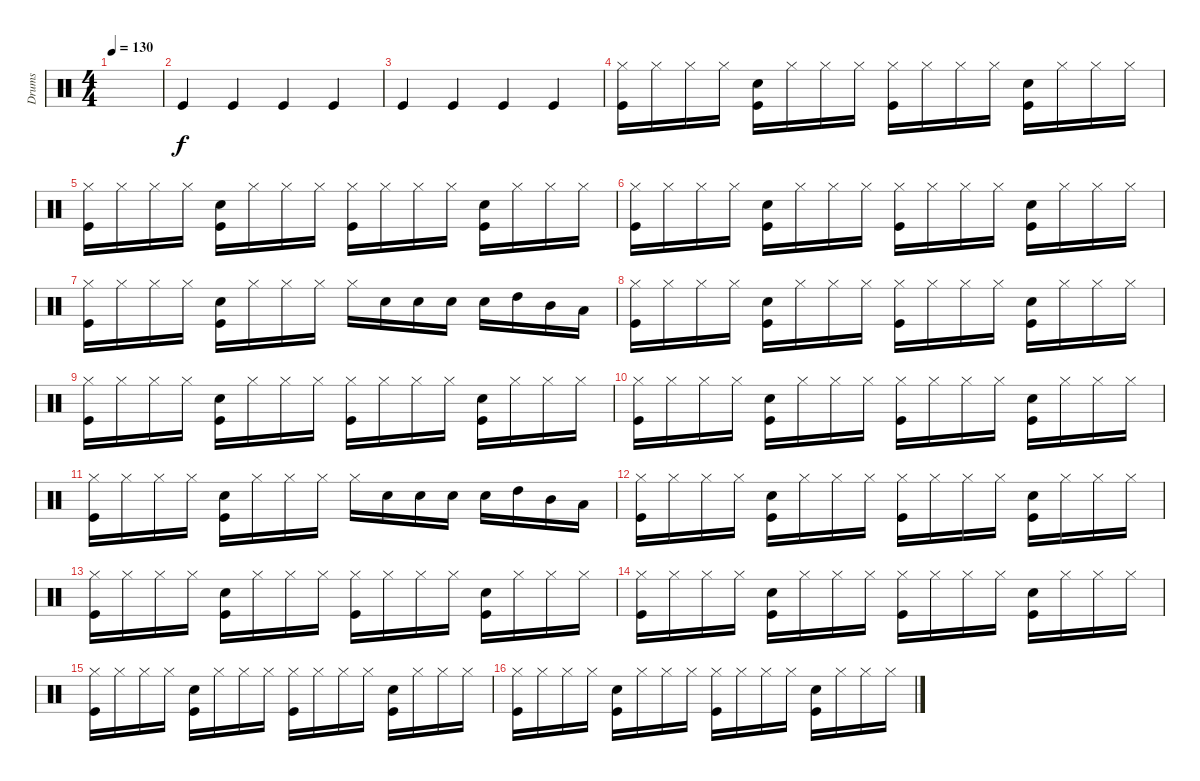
\track ("Drums" "Drums") {instrument percussion}
\staff {score}
\articulation defaults
\ts (4 4)
\tempo 130
\clef neutral
\ks c
|
"Kick (hit)".4 "Kick (hit)".4 "Kick (hit)".4 "Kick (hit)".4 |
"Kick (hit)".4 "Kick (hit)".4 "Kick (hit)".4 "Kick (hit)".4 |
("Hi-Hat (closed)" "Kick (hit)").16 "Hi-Hat (closed)".16 "Hi-Hat (closed)".16 "Hi-Hat (closed)".16 ("Snare (hit) 2" "Kick (hit)").16 "Hi-Hat (closed)".16 "Hi-Hat (closed)".16 "Hi-Hat (closed)".16 ("Hi-Hat (closed)" "Kick (hit)").16 "Hi-Hat (closed)".16 "Hi-Hat (closed)".16 "Hi-Hat (closed)".16 ("Snare (hit) 2" "Kick (hit)").16 "Hi-Hat (closed)".16 "Hi-Hat (closed)".16 "Hi-Hat (closed)".16 |
("Hi-Hat (closed)" "Kick (hit)").16 "Hi-Hat (closed)".16 "Hi-Hat (closed)".16 "Hi-Hat (closed)".16 ("Snare (hit) 2" "Kick (hit)").16 "Hi-Hat (closed)".16 "Hi-Hat (closed)".16 "Hi-Hat (closed)".16 ("Hi-Hat (closed)" "Kick (hit)").16 "Hi-Hat (closed)".16 "Hi-Hat (closed)".16 "Hi-Hat (closed)".16 ("Snare (hit) 2" "Kick (hit)").16 "Hi-Hat (closed)".16 "Hi-Hat (closed)".16 "Hi-Hat (closed)".16 |
("Hi-Hat (closed)" "Kick (hit)").16 "Hi-Hat (closed)".16 "Hi-Hat (closed)".16 "Hi-Hat (closed)".16 ("Snare (hit) 2" "Kick (hit)").16 "Hi-Hat (closed)".16 "Hi-Hat (closed)".16 "Hi-Hat (closed)".16 ("Hi-Hat (closed)" "Kick (hit)").16 "Hi-Hat (closed)".16 "Hi-Hat (closed)".16 "Hi-Hat (closed)".16 ("Snare (hit) 2" "Kick (hit)").16 "Hi-Hat (closed)".16 "Hi-Hat (closed)".16 "Hi-Hat (closed)".16 |
("Hi-Hat (closed)" "Kick (hit)").16 "Hi-Hat (closed)".16 "Hi-Hat (closed)".16 "Hi-Hat (closed)".16 ("Snare (hit) 2" "Kick (hit)").16 "Hi-Hat (closed)".16 "Hi-Hat (closed)".16 "Hi-Hat (closed)".16 "Hi-Hat (closed)".16 "Snare (hit) 2".16 "Snare (hit) 2".16 "Snare (hit) 2".16 "Snare (hit) 2".16 "High Tom (hit)".16 "Mid Tom (hit)".16 "Low Tom (hit)".16 |
("Hi-Hat (closed)" "Kick (hit)").16 "Hi-Hat (closed)".16 "Hi-Hat (closed)".16 "Hi-Hat (closed)".16 ("Snare (hit) 2" "Kick (hit)").16 "Hi-Hat (closed)".16 "Hi-Hat (closed)".16 "Hi-Hat (closed)".16 ("Hi-Hat (closed)" "Kick (hit)").16 "Hi-Hat (closed)".16 "Hi-Hat (closed)".16 "Hi-Hat (closed)".16 ("Snare (hit) 2" "Kick (hit)").16 "Hi-Hat (closed)".16 "Hi-Hat (closed)".16 "Hi-Hat (closed)".16 |
("Hi-Hat (closed)" "Kick (hit)").16 "Hi-Hat (closed)".16 "Hi-Hat (closed)".16 "Hi-Hat (closed)".16 ("Snare (hit) 2" "Kick (hit)").16 "Hi-Hat (closed)".16 "Hi-Hat (closed)".16 "Hi-Hat (closed)".16 ("Hi-Hat (closed)" "Kick (hit)").16 "Hi-Hat (closed)".16 "Hi-Hat (closed)".16 "Hi-Hat (closed)".16 ("Snare (hit) 2" "Kick (hit)").16 "Hi-Hat (closed)".16 "Hi-Hat (closed)".16 "Hi-Hat (closed)".16 |
("Hi-Hat (closed)" "Kick (hit)").16 "Hi-Hat (closed)".16 "Hi-Hat (closed)".16 "Hi-Hat (closed)".16 ("Snare (hit) 2" "Kick (hit)").16 "Hi-Hat (closed)".16 "Hi-Hat (closed)".16 "Hi-Hat (closed)".16 ("Hi-Hat (closed)" "Kick (hit)").16 "Hi-Hat (closed)".16 "Hi-Hat (closed)".16 "Hi-Hat (closed)".16 ("Snare (hit) 2" "Kick (hit)").16 "Hi-Hat (closed)".16 "Hi-Hat (closed)".16 "Hi-Hat (closed)".16 |
("Hi-Hat (closed)" "Kick (hit)").16 "Hi-Hat (closed)".16 "Hi-Hat (closed)".16 "Hi-Hat (closed)".16 ("Snare (hit) 2" "Kick (hit)").16 "Hi-Hat (closed)".16 "Hi-Hat (closed)".16 "Hi-Hat (closed)".16 "Hi-Hat (closed)".16 "Snare (hit) 2".16 "Snare (hit) 2".16 "Snare (hit) 2".16 "Snare (hit) 2".16 "High Tom (hit)".16 "Mid Tom (hit)".16 "Low Tom (hit)".16 |
("Hi-Hat (closed)" "Kick (hit)").16 "Hi-Hat (closed)".16 "Hi-Hat (closed)".16 "Hi-Hat (closed)".16 ("Snare (hit) 2" "Kick (hit)").16 "Hi-Hat (closed)".16 "Hi-Hat (closed)".16 "Hi-Hat (closed)".16 ("Hi-Hat (closed)" "Kick (hit)").16 "Hi-Hat (closed)".16 "Hi-Hat (closed)".16 "Hi-Hat (closed)".16 ("Snare (hit) 2" "Kick (hit)").16 "Hi-Hat (closed)".16 "Hi-Hat (closed)".16 "Hi-Hat (closed)".16 |
("Hi-Hat (closed)" "Kick (hit)").16 "Hi-Hat (closed)".16 "Hi-Hat (closed)".16 "Hi-Hat (closed)".16 ("Snare (hit) 2" "Kick (hit)").16 "Hi-Hat (closed)".16 "Hi-Hat (closed)".16 "Hi-Hat (closed)".16 ("Hi-Hat (closed)" "Kick (hit)").16 "Hi-Hat (closed)".16 "Hi-Hat (closed)".16 "Hi-Hat (closed)".16 ("Snare (hit) 2" "Kick (hit)").16 "Hi-Hat (closed)".16 "Hi-Hat (closed)".16 "Hi-Hat (closed)".16 |
("Hi-Hat (closed)" "Kick (hit)").16 "Hi-Hat (closed)".16 "Hi-Hat (closed)".16 "Hi-Hat (closed)".16 ("Snare (hit) 2" "Kick (hit)").16 "Hi-Hat (closed)".16 "Hi-Hat (closed)".16 "Hi-Hat (closed)".16 ("Hi-Hat (closed)" "Kick (hit)").16 "Hi-Hat (closed)".16 "Hi-Hat (closed)".16 "Hi-Hat (closed)".16 ("Snare (hit) 2" "Kick (hit)").16 "Hi-Hat (closed)".16 "Hi-Hat (closed)".16 "Hi-Hat (closed)".16 |
("Hi-Hat (closed)" "Kick (hit)").16 "Hi-Hat (closed)".16 "Hi-Hat (closed)".16 "Hi-Hat (closed)".16 ("Snare (hit) 2" "Kick (hit)").16 "Hi-Hat (closed)".16 "Hi-Hat (closed)".16 "Hi-Hat (closed)".16 ("Hi-Hat (closed)" "Kick (hit)").16 "Hi-Hat (closed)".16 "Hi-Hat (closed)".16 "Hi-Hat (closed)".16 ("Snare (hit) 2" "Kick (hit)").16 "Hi-Hat (closed)".16 "Hi-Hat (closed)".16 "Hi-Hat (closed)".16 |
("Hi-Hat (closed)" "Kick (hit)").16 "Hi-Hat (closed)".16 "Hi-Hat (closed)".16 "Hi-Hat (closed)".16 ("Snare (hit) 2" "Kick (hit)").16 "Hi-Hat (closed)".16 "Hi-Hat (closed)".16 "Hi-Hat (closed)".16 ("Hi-Hat (closed)" "Kick (hit)").16 "Hi-Hat (closed)".16 "Hi-Hat (closed)".16 "Hi-Hat (closed)".16 ("Snare (hit) 2" "Kick (hit)").16 "Hi-Hat (closed)".16 "Hi-Hat (closed)".16 "Hi-Hat (closed)".16
